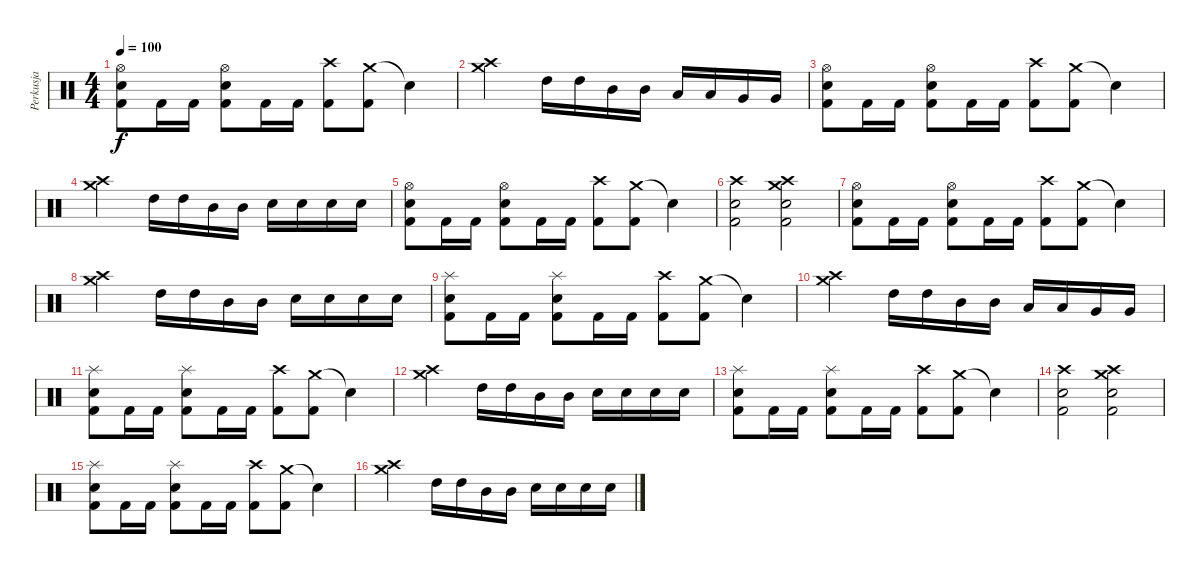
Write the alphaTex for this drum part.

\track ("Perkusja" "Perkusja") {instrument percussion}
\staff {score}
\articulation defaults
\ts (4 4)
\tempo 100
\clef neutral
\ks c
("Hi-Hat (open)" "Electric Snare (hit)" "Kick (hit) 2").8{dy f} "Kick (hit) 2".16 "Kick (hit) 2".16 ("Hi-Hat (open)" "Electric Snare (hit)" "Kick (hit) 2").8 "Kick (hit) 2".16 "Kick (hit) 2".16 ("Crash high (hit)" "Kick (hit) 2").8 ("Crash medium (hit)" "Kick (hit) 2").8 "Snare (hit)"{t}.4 |
("Crash medium (hit)" "Crash high (hit)").2 "High Tom (hit)".16 "High Tom (hit)".16 "Mid Tom (hit)".16 "Mid Tom (hit)".16 "Low Tom (hit)".16 "Low Tom (hit)".16 "Very Low Tom (hit)".16 "Very Low Tom (hit)".16 |
("Hi-Hat (open)" "Electric Snare (hit)" "Kick (hit) 2").8 "Kick (hit) 2".16 "Kick (hit) 2".16 ("Hi-Hat (open)" "Electric Snare (hit)" "Kick (hit) 2").8 "Kick (hit) 2".16 "Kick (hit) 2".16 ("Crash high (hit)" "Kick (hit) 2").8 ("Crash medium (hit)" "Kick (hit) 2").8 "Snare (hit)"{t}.4 |
("Crash medium (hit)" "Crash high (hit)").2 "High Tom (hit)".16 "High Tom (hit)".16 "Mid Tom (hit)".16 "Mid Tom (hit)".16 "Electric Snare (hit)".16 "Electric Snare (hit)".16 "Electric Snare (hit)".16 "Electric Snare (hit)".16 |
("Hi-Hat (open)" "Electric Snare (hit)" "Kick (hit) 2").8 "Kick (hit) 2".16 "Kick (hit) 2".16 ("Hi-Hat (open)" "Electric Snare (hit)" "Kick (hit) 2").8 "Kick (hit) 2".16 "Kick (hit) 2".16 ("Crash high (hit)" "Kick (hit) 2").8 ("Crash medium (hit)" "Kick (hit) 2").8 "Snare (hit)"{t}.4 |
("Crash high (hit)" "Kick (hit) 2" "Electric Snare (hit)").2 ("Crash medium (hit)" "Crash high (hit)" "Electric Snare (hit)" "Kick (hit) 2").2 |
("Hi-Hat (open)" "Electric Snare (hit)" "Kick (hit) 2").8 "Kick (hit) 2".16 "Kick (hit) 2".16 ("Hi-Hat (open)" "Electric Snare (hit)" "Kick (hit) 2").8 "Kick (hit) 2".16 "Kick (hit) 2".16 ("Crash high (hit)" "Kick (hit) 2").8 ("Crash medium (hit)" "Kick (hit) 2").8 "Snare (hit)"{t}.4 |
("Crash medium (hit)" "Crash high (hit)").2 "High Tom (hit)".16 "High Tom (hit)".16 "Mid Tom (hit)".16 "Mid Tom (hit)".16 "Electric Snare (hit)".16 "Electric Snare (hit)".16 "Electric Snare (hit)".16 "Electric Snare (hit)".16 |
("Splash (hit)" "Electric Snare (hit)" "Kick (hit) 2").8 "Kick (hit) 2".16 "Kick (hit) 2".16 ("Splash (hit)" "Electric Snare (hit)" "Kick (hit) 2").8 "Kick (hit) 2".16 "Kick (hit) 2".16 ("Crash high (hit)" "Kick (hit) 2").8 ("Crash medium (hit)" "Kick (hit) 2").8 "Snare (hit)"{t}.4 |
("Crash medium (hit)" "Crash high (hit)").2 "High Tom (hit)".16 "High Tom (hit)".16 "Mid Tom (hit)".16 "Mid Tom (hit)".16 "Low Tom (hit)".16 "Low Tom (hit)".16 "Very Low Tom (hit)".16 "Very Low Tom (hit)".16 |
("Splash (hit)" "Electric Snare (hit)" "Kick (hit) 2").8 "Kick (hit) 2".16 "Kick (hit) 2".16 ("Splash (hit)" "Electric Snare (hit)" "Kick (hit) 2").8 "Kick (hit) 2".16 "Kick (hit) 2".16 ("Crash high (hit)" "Kick (hit) 2").8 ("Crash medium (hit)" "Kick (hit) 2").8 "Snare (hit)"{t}.4 |
("Crash medium (hit)" "Crash high (hit)").2 "High Tom (hit)".16 "High Tom (hit)".16 "Mid Tom (hit)".16 "Mid Tom (hit)".16 "Electric Snare (hit)".16 "Electric Snare (hit)".16 "Electric Snare (hit)".16 "Electric Snare (hit)".16 |
("Splash (hit)" "Electric Snare (hit)" "Kick (hit) 2").8 "Kick (hit) 2".16 "Kick (hit) 2".16 ("Splash (hit)" "Electric Snare (hit)" "Kick (hit) 2").8 "Kick (hit) 2".16 "Kick (hit) 2".16 ("Crash high (hit)" "Kick (hit) 2").8 ("Crash medium (hit)" "Kick (hit) 2").8 "Snare (hit)"{t}.4 |
("Crash high (hit)" "Kick (hit) 2" "Electric Snare (hit)").2 ("Crash medium (hit)" "Crash high (hit)" "Electric Snare (hit)" "Kick (hit) 2").2 |
("Splash (hit)" "Electric Snare (hit)" "Kick (hit) 2").8 "Kick (hit) 2".16 "Kick (hit) 2".16 ("Splash (hit)" "Electric Snare (hit)" "Kick (hit) 2").8 "Kick (hit) 2".16 "Kick (hit) 2".16 ("Crash high (hit)" "Kick (hit) 2").8 ("Crash medium (hit)" "Kick (hit) 2").8 "Snare (hit)"{t}.4 |
("Crash medium (hit)" "Crash high (hit)").2 "High Tom (hit)".16 "High Tom (hit)".16 "Mid Tom (hit)".16 "Mid Tom (hit)".16 "Electric Snare (hit)".16 "Electric Snare (hit)".16 "Electric Snare (hit)".16 "Electric Snare (hit)".16
